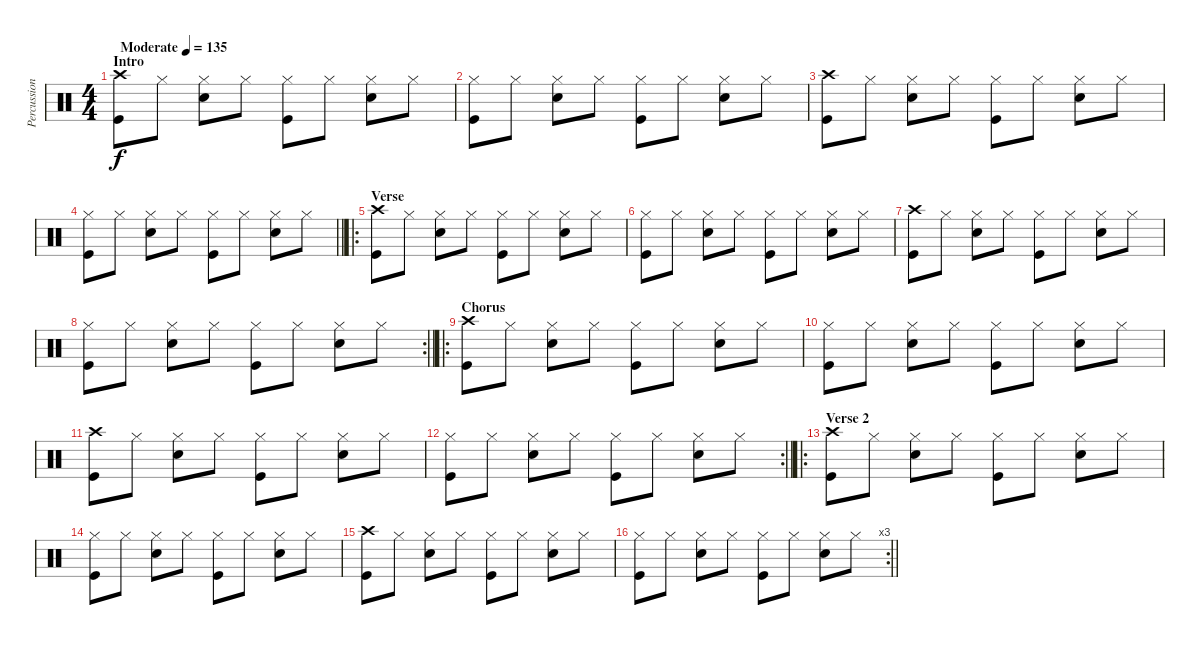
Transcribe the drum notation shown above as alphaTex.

\track ("Percussion" "Percussion") {instrument percussion}
\staff {score}
\articulation defaults
\ts (4 4)
\section ("" "Intro")
\tempo (135 "Moderate")
\clef neutral
\ks c
("Crash high (hit)" "Kick (hit)").8{dy f} "Hi-Hat (closed)".8 ("Hi-Hat (closed)" "Electric Snare (hit)").8 "Hi-Hat (closed)".8 ("Hi-Hat (closed)" "Kick (hit)").8 "Hi-Hat (closed)".8 ("Hi-Hat (closed)" "Electric Snare (hit)").8 "Hi-Hat (closed)".8 |
("Hi-Hat (closed)" "Kick (hit)").8 "Hi-Hat (closed)".8 ("Hi-Hat (closed)" "Electric Snare (hit)").8 "Hi-Hat (closed)".8 ("Hi-Hat (closed)" "Kick (hit)").8 "Hi-Hat (closed)".8 ("Hi-Hat (closed)" "Electric Snare (hit)").8 "Hi-Hat (closed)".8 |
("Crash high (hit)" "Kick (hit)").8 "Hi-Hat (closed)".8 ("Hi-Hat (closed)" "Electric Snare (hit)").8 "Hi-Hat (closed)".8 ("Hi-Hat (closed)" "Kick (hit)").8 "Hi-Hat (closed)".8 ("Hi-Hat (closed)" "Electric Snare (hit)").8 "Hi-Hat (closed)".8 |
\barLineRight lightlight
("Hi-Hat (closed)" "Kick (hit)").8 "Hi-Hat (closed)".8 ("Hi-Hat (closed)" "Electric Snare (hit)").8 "Hi-Hat (closed)".8 ("Hi-Hat (closed)" "Kick (hit)").8 "Hi-Hat (closed)".8 ("Hi-Hat (closed)" "Electric Snare (hit)").8 "Hi-Hat (closed)".8 |
\ro
\section ("" "Verse")
("Crash high (hit)" "Kick (hit)").8 "Hi-Hat (closed)".8 ("Hi-Hat (closed)" "Electric Snare (hit)").8 "Hi-Hat (closed)".8 ("Hi-Hat (closed)" "Kick (hit)").8 "Hi-Hat (closed)".8 ("Hi-Hat (closed)" "Electric Snare (hit)").8 "Hi-Hat (closed)".8 |
("Hi-Hat (closed)" "Kick (hit)").8 "Hi-Hat (closed)".8 ("Hi-Hat (closed)" "Electric Snare (hit)").8 "Hi-Hat (closed)".8 ("Hi-Hat (closed)" "Kick (hit)").8 "Hi-Hat (closed)".8 ("Hi-Hat (closed)" "Electric Snare (hit)").8 "Hi-Hat (closed)".8 |
("Crash high (hit)" "Kick (hit)").8 "Hi-Hat (closed)".8 ("Hi-Hat (closed)" "Electric Snare (hit)").8 "Hi-Hat (closed)".8 ("Hi-Hat (closed)" "Kick (hit)").8 "Hi-Hat (closed)".8 ("Hi-Hat (closed)" "Electric Snare (hit)").8 "Hi-Hat (closed)".8 |
\rc 2
\barLineRight lightlight
("Hi-Hat (closed)" "Kick (hit)").8 "Hi-Hat (closed)".8 ("Hi-Hat (closed)" "Electric Snare (hit)").8 "Hi-Hat (closed)".8 ("Hi-Hat (closed)" "Kick (hit)").8 "Hi-Hat (closed)".8 ("Hi-Hat (closed)" "Electric Snare (hit)").8 "Hi-Hat (closed)".8 |
\ro
\section ("" "Chorus")
("Crash high (hit)" "Kick (hit)").8 "Hi-Hat (closed)".8 ("Hi-Hat (closed)" "Electric Snare (hit)").8 "Hi-Hat (closed)".8 ("Hi-Hat (closed)" "Kick (hit)").8 "Hi-Hat (closed)".8 ("Hi-Hat (closed)" "Electric Snare (hit)").8 "Hi-Hat (closed)".8 |
("Hi-Hat (closed)" "Kick (hit)").8 "Hi-Hat (closed)".8 ("Hi-Hat (closed)" "Electric Snare (hit)").8 "Hi-Hat (closed)".8 ("Hi-Hat (closed)" "Kick (hit)").8 "Hi-Hat (closed)".8 ("Hi-Hat (closed)" "Electric Snare (hit)").8 "Hi-Hat (closed)".8 |
("Crash high (hit)" "Kick (hit)").8 "Hi-Hat (closed)".8 ("Hi-Hat (closed)" "Electric Snare (hit)").8 "Hi-Hat (closed)".8 ("Hi-Hat (closed)" "Kick (hit)").8 "Hi-Hat (closed)".8 ("Hi-Hat (closed)" "Electric Snare (hit)").8 "Hi-Hat (closed)".8 |
\rc 2
\barLineRight lightlight
("Hi-Hat (closed)" "Kick (hit)").8 "Hi-Hat (closed)".8 ("Hi-Hat (closed)" "Electric Snare (hit)").8 "Hi-Hat (closed)".8 ("Hi-Hat (closed)" "Kick (hit)").8 "Hi-Hat (closed)".8 ("Hi-Hat (closed)" "Electric Snare (hit)").8 "Hi-Hat (closed)".8 |
\ro
\section ("" "Verse 2")
("Crash high (hit)" "Kick (hit)").8 "Hi-Hat (closed)".8 ("Hi-Hat (closed)" "Electric Snare (hit)").8 "Hi-Hat (closed)".8 ("Hi-Hat (closed)" "Kick (hit)").8 "Hi-Hat (closed)".8 ("Hi-Hat (closed)" "Electric Snare (hit)").8 "Hi-Hat (closed)".8 |
("Hi-Hat (closed)" "Kick (hit)").8 "Hi-Hat (closed)".8 ("Hi-Hat (closed)" "Electric Snare (hit)").8 "Hi-Hat (closed)".8 ("Hi-Hat (closed)" "Kick (hit)").8 "Hi-Hat (closed)".8 ("Hi-Hat (closed)" "Electric Snare (hit)").8 "Hi-Hat (closed)".8 |
("Crash high (hit)" "Kick (hit)").8 "Hi-Hat (closed)".8 ("Hi-Hat (closed)" "Electric Snare (hit)").8 "Hi-Hat (closed)".8 ("Hi-Hat (closed)" "Kick (hit)").8 "Hi-Hat (closed)".8 ("Hi-Hat (closed)" "Electric Snare (hit)").8 "Hi-Hat (closed)".8 |
\rc 3
\barLineRight lightlight
("Hi-Hat (closed)" "Kick (hit)").8 "Hi-Hat (closed)".8 ("Hi-Hat (closed)" "Electric Snare (hit)").8 "Hi-Hat (closed)".8 ("Hi-Hat (closed)" "Kick (hit)").8 "Hi-Hat (closed)".8 ("Hi-Hat (closed)" "Electric Snare (hit)").8 "Hi-Hat (closed)".8
